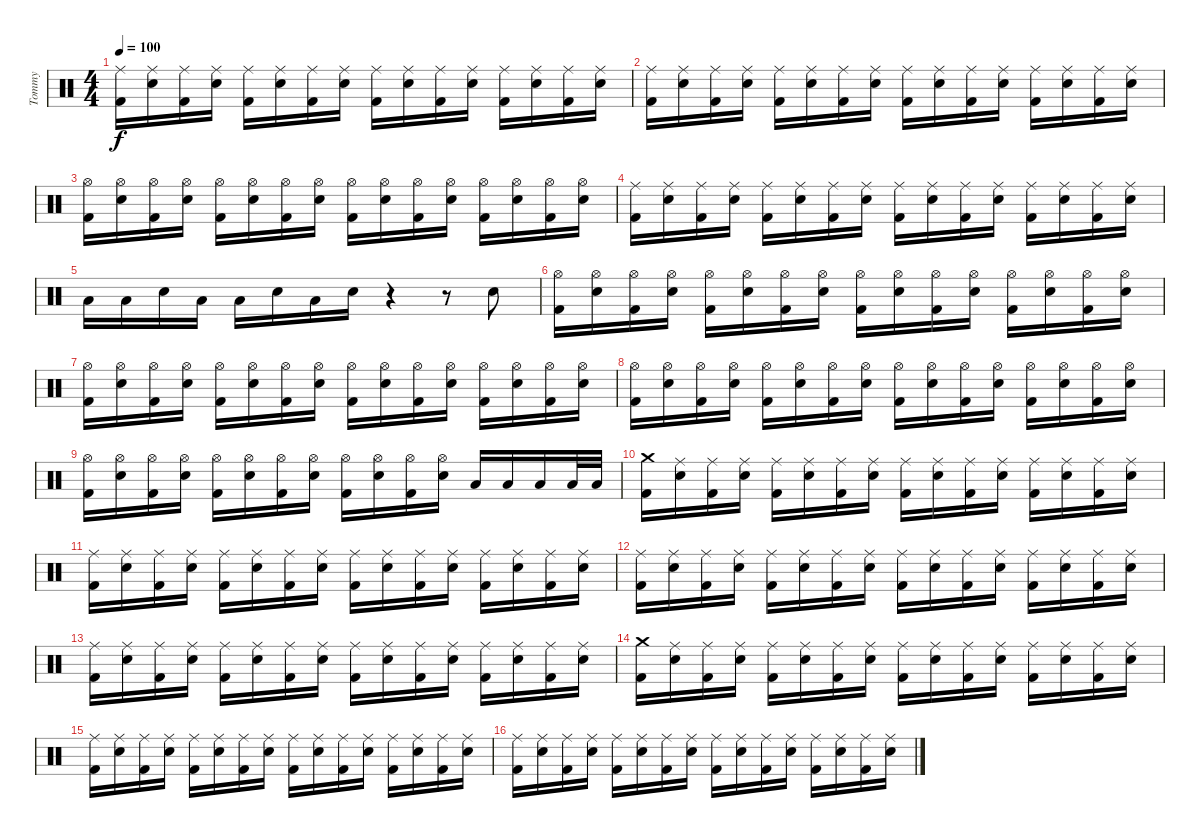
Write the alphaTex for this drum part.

\track ("Tommy" "Tommy") {instrument percussion}
\staff {score}
\articulation defaults
\ts (4 4)
\tempo 100
\clef neutral
\ks c
("Ride (middle)" "Kick (hit) 2").16{dy f} ("Ride (middle)" "Snare (hit) 2").16 ("Ride (middle)" "Kick (hit) 2").16 ("Ride (middle)" "Snare (hit) 2").16 ("Ride (middle)" "Kick (hit) 2").16 ("Ride (middle)" "Snare (hit) 2").16 ("Ride (middle)" "Kick (hit) 2").16 ("Ride (middle)" "Snare (hit) 2").16 ("Ride (middle)" "Kick (hit) 2").16 ("Ride (middle)" "Snare (hit) 2").16 ("Ride (middle)" "Kick (hit) 2").16 ("Ride (middle)" "Snare (hit) 2").16 ("Ride (middle)" "Kick (hit) 2").16 ("Ride (middle)" "Snare (hit) 2").16 ("Ride (middle)" "Kick (hit) 2").16 ("Ride (middle)" "Snare (hit) 2").16 |
("Ride (middle)" "Kick (hit) 2").16 ("Ride (middle)" "Snare (hit) 2").16 ("Ride (middle)" "Kick (hit) 2").16 ("Ride (middle)" "Snare (hit) 2").16 ("Ride (middle)" "Kick (hit) 2").16 ("Ride (middle)" "Snare (hit) 2").16 ("Ride (middle)" "Kick (hit) 2").16 ("Ride (middle)" "Snare (hit) 2").16 ("Ride (middle)" "Kick (hit) 2").16 ("Ride (middle)" "Snare (hit) 2").16 ("Ride (middle)" "Kick (hit) 2").16 ("Ride (middle)" "Snare (hit) 2").16 ("Ride (middle)" "Kick (hit) 2").16 ("Ride (middle)" "Snare (hit) 2").16 ("Ride (middle)" "Kick (hit) 2").16 ("Ride (middle)" "Snare (hit) 2").16 |
("Hi-Hat (open)" "Kick (hit) 2").16 ("Hi-Hat (open)" "Snare (hit) 2").16 ("Hi-Hat (open)" "Kick (hit) 2").16 ("Hi-Hat (open)" "Snare (hit) 2").16 ("Hi-Hat (open)" "Kick (hit) 2").16 ("Hi-Hat (open)" "Snare (hit) 2").16 ("Hi-Hat (open)" "Kick (hit) 2").16 ("Hi-Hat (open)" "Snare (hit) 2").16 ("Hi-Hat (open)" "Kick (hit) 2").16 ("Hi-Hat (open)" "Snare (hit) 2").16 ("Hi-Hat (open)" "Kick (hit) 2").16 ("Hi-Hat (open)" "Snare (hit) 2").16 ("Hi-Hat (open)" "Kick (hit) 2").16 ("Hi-Hat (open)" "Snare (hit) 2").16 ("Hi-Hat (open)" "Kick (hit) 2").16 ("Hi-Hat (open)" "Snare (hit) 2").16 |
("Ride (middle)" "Kick (hit) 2").16 ("Ride (middle)" "Snare (hit) 2").16 ("Ride (middle)" "Kick (hit) 2").16 ("Ride (middle)" "Snare (hit) 2").16 ("Ride (middle)" "Kick (hit) 2").16 ("Ride (middle)" "Snare (hit) 2").16 ("Ride (middle)" "Kick (hit) 2").16 ("Ride (middle)" "Snare (hit) 2").16 ("Ride (middle)" "Kick (hit) 2").16 ("Ride (middle)" "Snare (hit) 2").16 ("Ride (middle)" "Kick (hit) 2").16 ("Ride (middle)" "Snare (hit) 2").16 ("Ride (middle)" "Kick (hit) 2").16 ("Ride (middle)" "Snare (hit) 2").16 ("Ride (middle)" "Kick (hit) 2").16 ("Ride (middle)" "Snare (hit) 2").16 |
"Low Tom (hit)".16 "Low Tom (hit)".16 "Snare (hit) 2".16 "Low Tom (hit)".16 "Low Tom (hit)".16 "Snare (hit) 2".16 "Low Tom (hit)".16 "Snare (hit) 2".16 r.4 r.8 "Snare (hit) 2".8 |
("Hi-Hat (open)" "Kick (hit) 2").16 ("Hi-Hat (open)" "Snare (hit) 2").16 ("Hi-Hat (open)" "Kick (hit) 2").16 ("Hi-Hat (open)" "Snare (hit) 2").16 ("Hi-Hat (open)" "Kick (hit) 2").16 ("Hi-Hat (open)" "Snare (hit) 2").16 ("Hi-Hat (open)" "Kick (hit) 2").16 ("Hi-Hat (open)" "Snare (hit) 2").16 ("Hi-Hat (open)" "Kick (hit) 2").16 ("Hi-Hat (open)" "Snare (hit) 2").16 ("Hi-Hat (open)" "Kick (hit) 2").16 ("Hi-Hat (open)" "Snare (hit) 2").16 ("Hi-Hat (open)" "Kick (hit) 2").16 ("Hi-Hat (open)" "Snare (hit) 2").16 ("Hi-Hat (open)" "Kick (hit) 2").16 ("Hi-Hat (open)" "Snare (hit) 2").16 |
("Hi-Hat (open)" "Kick (hit) 2").16 ("Hi-Hat (open)" "Snare (hit) 2").16 ("Hi-Hat (open)" "Kick (hit) 2").16 ("Hi-Hat (open)" "Snare (hit) 2").16 ("Hi-Hat (open)" "Kick (hit) 2").16 ("Hi-Hat (open)" "Snare (hit) 2").16 ("Hi-Hat (open)" "Kick (hit) 2").16 ("Hi-Hat (open)" "Snare (hit) 2").16 ("Hi-Hat (open)" "Kick (hit) 2").16 ("Hi-Hat (open)" "Snare (hit) 2").16 ("Hi-Hat (open)" "Kick (hit) 2").16 ("Hi-Hat (open)" "Snare (hit) 2").16 ("Hi-Hat (open)" "Kick (hit) 2").16 ("Hi-Hat (open)" "Snare (hit) 2").16 ("Hi-Hat (open)" "Kick (hit) 2").16 ("Hi-Hat (open)" "Snare (hit) 2").16 |
("Hi-Hat (open)" "Kick (hit) 2").16 ("Hi-Hat (open)" "Snare (hit) 2").16 ("Hi-Hat (open)" "Kick (hit) 2").16 ("Hi-Hat (open)" "Snare (hit) 2").16 ("Hi-Hat (open)" "Kick (hit) 2").16 ("Hi-Hat (open)" "Snare (hit) 2").16 ("Hi-Hat (open)" "Kick (hit) 2").16 ("Hi-Hat (open)" "Snare (hit) 2").16 ("Hi-Hat (open)" "Kick (hit) 2").16 ("Hi-Hat (open)" "Snare (hit) 2").16 ("Hi-Hat (open)" "Kick (hit) 2").16 ("Hi-Hat (open)" "Snare (hit) 2").16 ("Hi-Hat (open)" "Kick (hit) 2").16 ("Hi-Hat (open)" "Snare (hit) 2").16 ("Hi-Hat (open)" "Kick (hit) 2").16 ("Hi-Hat (open)" "Snare (hit) 2").16 |
("Hi-Hat (open)" "Kick (hit) 2").16 ("Hi-Hat (open)" "Snare (hit) 2").16 ("Hi-Hat (open)" "Kick (hit) 2").16 ("Hi-Hat (open)" "Snare (hit) 2").16 ("Hi-Hat (open)" "Kick (hit) 2").16 ("Hi-Hat (open)" "Snare (hit) 2").16 ("Hi-Hat (open)" "Kick (hit) 2").16 ("Hi-Hat (open)" "Snare (hit) 2").16 ("Hi-Hat (open)" "Kick (hit) 2").16 ("Hi-Hat (open)" "Snare (hit) 2").16 ("Hi-Hat (open)" "Kick (hit) 2").16 ("Hi-Hat (open)" "Snare (hit) 2").16 "Low Tom (hit)".16 "Low Tom (hit)".16 "Low Tom (hit)".16 "Low Tom (hit)".32 "Low Tom (hit)".32 |
("Crash medium (hit)" "Kick (hit) 2").16 ("Ride (middle)" "Snare (hit) 2").16 ("Ride (middle)" "Kick (hit) 2").16 ("Ride (middle)" "Snare (hit) 2").16 ("Ride (middle)" "Kick (hit) 2").16 ("Ride (middle)" "Snare (hit) 2").16 ("Ride (middle)" "Kick (hit) 2").16 ("Ride (middle)" "Snare (hit) 2").16 ("Ride (middle)" "Kick (hit) 2").16 ("Ride (middle)" "Snare (hit) 2").16 ("Ride (middle)" "Kick (hit) 2").16 ("Ride (middle)" "Snare (hit) 2").16 ("Ride (middle)" "Kick (hit) 2").16 ("Ride (middle)" "Snare (hit) 2").16 ("Ride (middle)" "Kick (hit) 2").16 ("Ride (middle)" "Snare (hit) 2").16 |
("Ride (middle)" "Kick (hit) 2").16 ("Ride (middle)" "Snare (hit) 2").16 ("Ride (middle)" "Kick (hit) 2").16 ("Ride (middle)" "Snare (hit) 2").16 ("Ride (middle)" "Kick (hit) 2").16 ("Ride (middle)" "Snare (hit) 2").16 ("Ride (middle)" "Kick (hit) 2").16 ("Ride (middle)" "Snare (hit) 2").16 ("Ride (middle)" "Kick (hit) 2").16 ("Ride (middle)" "Snare (hit) 2").16 ("Ride (middle)" "Kick (hit) 2").16 ("Ride (middle)" "Snare (hit) 2").16 ("Ride (middle)" "Kick (hit) 2").16 ("Ride (middle)" "Snare (hit) 2").16 ("Ride (middle)" "Kick (hit) 2").16 ("Ride (middle)" "Snare (hit) 2").16 |
("Ride (middle)" "Kick (hit) 2").16 ("Ride (middle)" "Snare (hit) 2").16 ("Ride (middle)" "Kick (hit) 2").16 ("Ride (middle)" "Snare (hit) 2").16 ("Ride (middle)" "Kick (hit) 2").16 ("Ride (middle)" "Snare (hit) 2").16 ("Ride (middle)" "Kick (hit) 2").16 ("Ride (middle)" "Snare (hit) 2").16 ("Ride (middle)" "Kick (hit) 2").16 ("Ride (middle)" "Snare (hit) 2").16 ("Ride (middle)" "Kick (hit) 2").16 ("Ride (middle)" "Snare (hit) 2").16 ("Ride (middle)" "Kick (hit) 2").16 ("Ride (middle)" "Snare (hit) 2").16 ("Ride (middle)" "Kick (hit) 2").16 ("Ride (middle)" "Snare (hit) 2").16 |
("Ride (middle)" "Kick (hit) 2").16 ("Ride (middle)" "Snare (hit) 2").16 ("Ride (middle)" "Kick (hit) 2").16 ("Ride (middle)" "Snare (hit) 2").16 ("Ride (middle)" "Kick (hit) 2").16 ("Ride (middle)" "Snare (hit) 2").16 ("Ride (middle)" "Kick (hit) 2").16 ("Ride (middle)" "Snare (hit) 2").16 ("Ride (middle)" "Kick (hit) 2").16 ("Ride (middle)" "Snare (hit) 2").16 ("Ride (middle)" "Kick (hit) 2").16 ("Ride (middle)" "Snare (hit) 2").16 ("Ride (middle)" "Kick (hit) 2").16 ("Ride (middle)" "Snare (hit) 2").16 ("Ride (middle)" "Kick (hit) 2").16 ("Ride (middle)" "Snare (hit) 2").16 |
("Crash medium (hit)" "Kick (hit) 2").16 ("Ride (middle)" "Snare (hit) 2").16 ("Ride (middle)" "Kick (hit) 2").16 ("Ride (middle)" "Snare (hit) 2").16 ("Ride (middle)" "Kick (hit) 2").16 ("Ride (middle)" "Snare (hit) 2").16 ("Ride (middle)" "Kick (hit) 2").16 ("Ride (middle)" "Snare (hit) 2").16 ("Ride (middle)" "Kick (hit) 2").16 ("Ride (middle)" "Snare (hit) 2").16 ("Ride (middle)" "Kick (hit) 2").16 ("Ride (middle)" "Snare (hit) 2").16 ("Ride (middle)" "Kick (hit) 2").16 ("Ride (middle)" "Snare (hit) 2").16 ("Ride (middle)" "Kick (hit) 2").16 ("Ride (middle)" "Snare (hit) 2").16 |
("Ride (middle)" "Kick (hit) 2").16 ("Ride (middle)" "Snare (hit) 2").16 ("Ride (middle)" "Kick (hit) 2").16 ("Ride (middle)" "Snare (hit) 2").16 ("Ride (middle)" "Kick (hit) 2").16 ("Ride (middle)" "Snare (hit) 2").16 ("Ride (middle)" "Kick (hit) 2").16 ("Ride (middle)" "Snare (hit) 2").16 ("Ride (middle)" "Kick (hit) 2").16 ("Ride (middle)" "Snare (hit) 2").16 ("Ride (middle)" "Kick (hit) 2").16 ("Ride (middle)" "Snare (hit) 2").16 ("Ride (middle)" "Kick (hit) 2").16 ("Ride (middle)" "Snare (hit) 2").16 ("Ride (middle)" "Kick (hit) 2").16 ("Ride (middle)" "Snare (hit) 2").16 |
("Ride (middle)" "Kick (hit) 2").16 ("Ride (middle)" "Snare (hit) 2").16 ("Ride (middle)" "Kick (hit) 2").16 ("Ride (middle)" "Snare (hit) 2").16 ("Ride (middle)" "Kick (hit) 2").16 ("Ride (middle)" "Snare (hit) 2").16 ("Ride (middle)" "Kick (hit) 2").16 ("Ride (middle)" "Snare (hit) 2").16 ("Ride (middle)" "Kick (hit) 2").16 ("Ride (middle)" "Snare (hit) 2").16 ("Ride (middle)" "Kick (hit) 2").16 ("Ride (middle)" "Snare (hit) 2").16 ("Ride (middle)" "Kick (hit) 2").16 ("Ride (middle)" "Snare (hit) 2").16 ("Ride (middle)" "Kick (hit) 2").16 ("Ride (middle)" "Snare (hit) 2").16
